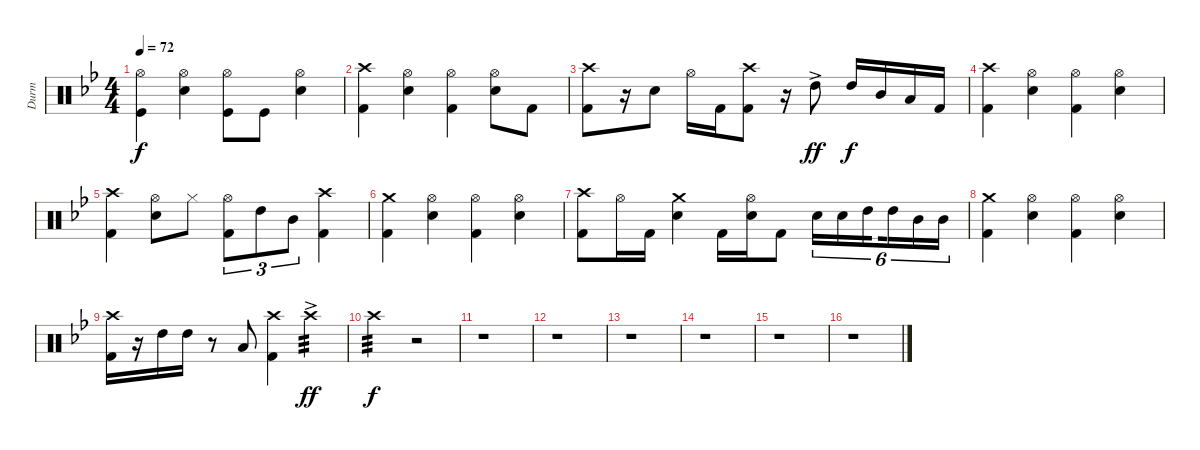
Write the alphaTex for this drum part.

\track ("Durm" "Durm") {instrument percussion}
\staff {score}
\articulation defaults
\ts (4 4)
\tempo 72
\clef neutral
\ks bb
("Hi-Hat (open)" "Kick (hit)").4{dy f} ("Hi-Hat (open)" "Electric Snare (hit)").4 ("Hi-Hat (open)" "Kick (hit)").8 "Kick (hit)".8 ("Hi-Hat (open)" "Electric Snare (hit)").4 |
("Crash high (hit)" "Kick (hit) 2").4 ("Hi-Hat (open)" "Electric Snare (hit)").4 ("Hi-Hat (open)" "Kick (hit) 2").4 ("Hi-Hat (open)" "Electric Snare (hit)").8 "Kick (hit) 2".8 |
("Crash high (hit)" "Kick (hit) 2").8 r.16 "Electric Snare (hit)".8 "Hi-Hat (open)".16 "Kick (hit) 2".16 ("Crash high (hit)" "Kick (hit) 2").8 r.16 "High Tom (hit)"{ac}.8{dy ff} "High Tom (hit)".16{dy f} "Mid Tom (hit)".16 "Low Floor Tom (hit)".16 "Kick (hit) 2".16 |
("Crash high (hit)" "Kick (hit) 2").4 ("Hi-Hat (open)" "Electric Snare (hit)").4 ("Hi-Hat (open)" "Kick (hit) 2").4 ("Hi-Hat (open)" "Electric Snare (hit)").4 |
("Crash high (hit)" "Kick (hit) 2").4 ("Hi-Hat (open)" "Electric Snare (hit)").8 "Hi-Hat (closed)".8 ("Hi-Hat (open)" "Kick (hit) 2").8{tu (3 2)} "High Tom (hit)".8{tu (3 2)} "Mid Tom (hit)".8{tu (3 2)} ("Crash high (hit)" "Kick (hit) 2").4 |
("Crash medium (hit)" "Kick (hit) 2").4 ("Hi-Hat (open)" "Electric Snare (hit)").4 ("Hi-Hat (open)" "Kick (hit) 2").4 ("Hi-Hat (open)" "Electric Snare (hit)").4 |
("Crash high (hit)" "Kick (hit) 2").8 "Hi-Hat (open)".16 "Kick (hit) 2".16 ("Crash medium (hit)" "Electric Snare (hit)").4 "Kick (hit) 2".16 ("Hi-Hat (open)" "Electric Snare (hit)").16 "Kick (hit) 2".8 "Electric Snare (hit)".16{tu (6 4)} "Electric Snare (hit)".16{tu (6 4)} "High Tom (hit)".16{tu (6 4) beam splitsecondary} "High Tom (hit)".16{tu (6 4)} "Mid Tom (hit)".16{tu (6 4)} "Mid Tom (hit)".16{tu (6 4)} |
("Crash medium (hit)" "Kick (hit) 2").4 ("Hi-Hat (open)" "Electric Snare (hit)").4 ("Hi-Hat (open)" "Kick (hit) 2").4 ("Hi-Hat (open)" "Electric Snare (hit)").4 |
("Crash high (hit)" "Kick (hit) 2").16 r.16 "High Tom (hit)".16 "High Tom (hit)".16 r.8 "Low Floor Tom (hit)".8 ("Crash high (hit)" "Kick (hit) 2").4 "Crash high (hit)"{ac}.4{tp 3 dy ff} |
"Crash high (hit)".2{tp 3 dy f} r.2 |
r.1 |
r.1 |
r.1 |
r.1 |
r.1 |
r.1
